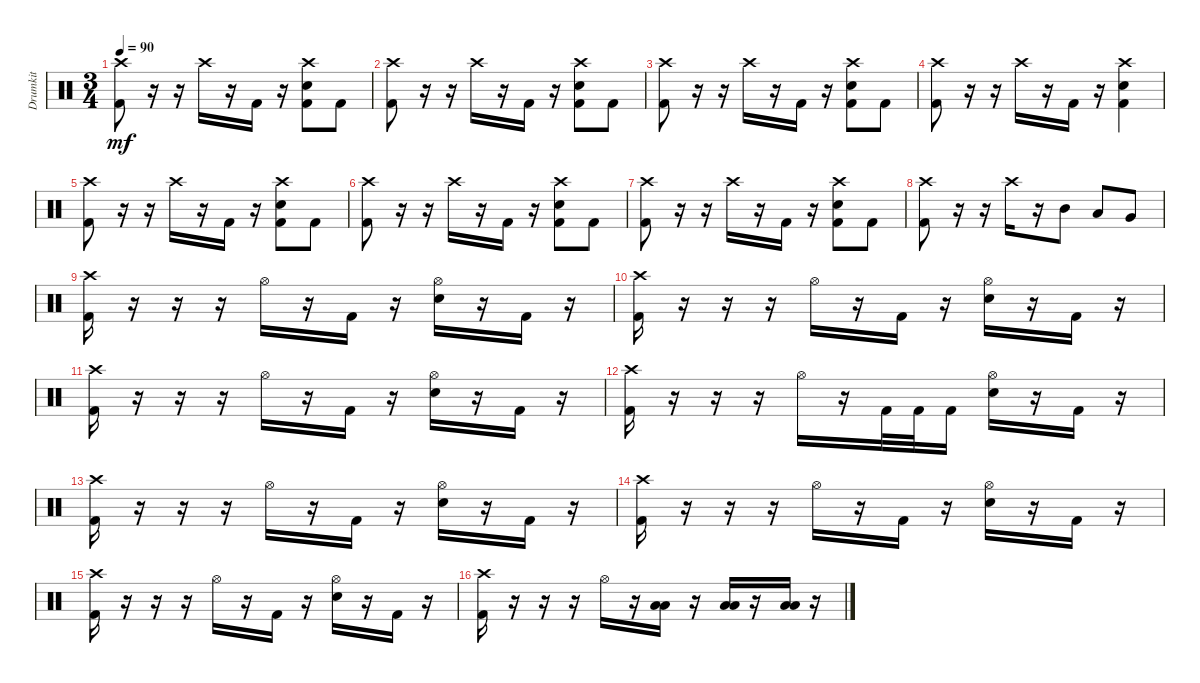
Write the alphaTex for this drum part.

\track ("Drumkit" "Drumkit") {instrument percussion}
\staff {score}
\articulation defaults
\ts (3 4)
\tempo 90
\clef neutral
\ks c
("Crash high (hit)" "Kick (hit) 2").8{dy mf} r.16 r.16 "Crash high (hit)".16 r.16 "Kick (hit) 2".16 r.16 ("Crash high (hit)" "Snare (hit) 2" "Kick (hit) 2").8 "Kick (hit) 2".8 |
("Crash high (hit)" "Kick (hit) 2").8 r.16 r.16 "Crash high (hit)".16 r.16 "Kick (hit) 2".16 r.16 ("Crash high (hit)" "Snare (hit) 2" "Kick (hit) 2").8 "Kick (hit) 2".8 |
("Crash high (hit)" "Kick (hit) 2").8 r.16 r.16 "Crash high (hit)".16 r.16 "Kick (hit) 2".16 r.16 ("Crash high (hit)" "Snare (hit) 2" "Kick (hit) 2").8 "Kick (hit) 2".8 |
("Crash high (hit)" "Kick (hit) 2").8 r.16 r.16 "Crash high (hit)".16 r.16 "Kick (hit) 2".16 r.16 ("Crash high (hit)" "Snare (hit) 2" "Kick (hit) 2").4 |
("Crash high (hit)" "Kick (hit) 2").8 r.16 r.16 "Crash high (hit)".16 r.16 "Kick (hit) 2".16 r.16 ("Crash high (hit)" "Snare (hit) 2" "Kick (hit) 2").8 "Kick (hit) 2".8 |
("Crash high (hit)" "Kick (hit) 2").8 r.16 r.16 "Crash high (hit)".16 r.16 "Kick (hit) 2".16 r.16 ("Crash high (hit)" "Snare (hit) 2" "Kick (hit) 2").8 "Kick (hit) 2".8 |
("Crash high (hit)" "Kick (hit) 2").8 r.16 r.16 "Crash high (hit)".16 r.16 "Kick (hit) 2".16 r.16 ("Crash high (hit)" "Snare (hit) 2" "Kick (hit) 2").8 "Kick (hit) 2".8 |
("Crash high (hit)" "Kick (hit) 2").8 r.16 r.16 "Crash high (hit)".16 r.16 "Mid Tom (hit)".8 "Low Tom (hit)".8 "Very Low Tom (hit)".8 |
("Crash high (hit)" "Kick (hit) 2").16 r.16 r.16 r.16 "Hi-Hat (open)".16 r.16 "Kick (hit) 2".16 r.16 ("Hi-Hat (open)" "Snare (hit) 2").16 r.16 "Kick (hit) 2".16 r.16 |
("Crash high (hit)" "Kick (hit) 2").16 r.16 r.16 r.16 "Hi-Hat (open)".16 r.16 "Kick (hit) 2".16 r.16 ("Hi-Hat (open)" "Snare (hit) 2").16 r.16 "Kick (hit) 2".16 r.16 |
("Crash high (hit)" "Kick (hit) 2").16 r.16 r.16 r.16 "Hi-Hat (open)".16 r.16 "Kick (hit) 2".16 r.16 ("Hi-Hat (open)" "Snare (hit) 2").16 r.16 "Kick (hit) 2".16 r.16 |
("Crash high (hit)" "Kick (hit) 2").16 r.16 r.16 r.16 "Hi-Hat (open)".16 r.16 "Kick (hit) 2".32 "Kick (hit) 2".32 "Kick (hit) 2".16 ("Hi-Hat (open)" "Snare (hit) 2").16 r.16 "Kick (hit) 2".16 r.16 |
("Crash high (hit)" "Kick (hit) 2").16 r.16 r.16 r.16 "Hi-Hat (open)".16 r.16 "Kick (hit) 2".16 r.16 ("Hi-Hat (open)" "Snare (hit) 2").16 r.16 "Kick (hit) 2".16 r.16 |
("Crash high (hit)" "Kick (hit) 2").16 r.16 r.16 r.16 "Hi-Hat (open)".16 r.16 "Kick (hit) 2".16 r.16 ("Hi-Hat (open)" "Snare (hit) 2").16 r.16 "Kick (hit) 2".16 r.16 |
("Crash high (hit)" "Kick (hit) 2").16 r.16 r.16 r.16 "Hi-Hat (open)".16 r.16 "Kick (hit) 2".16 r.16 ("Hi-Hat (open)" "Snare (hit) 2").16 r.16 "Kick (hit) 2".16 r.16 |
("Crash high (hit)" "Kick (hit) 2").16 r.16 r.16 r.16 "Hi-Hat (open)".16 r.16 ("Low Floor Tom (hit)" "Low Tom (hit)").16 r.16 ("Low Tom (hit)" "Low Floor Tom (hit)").16 r.16 ("Low Floor Tom (hit)" "Low Tom (hit)").16 r.16
